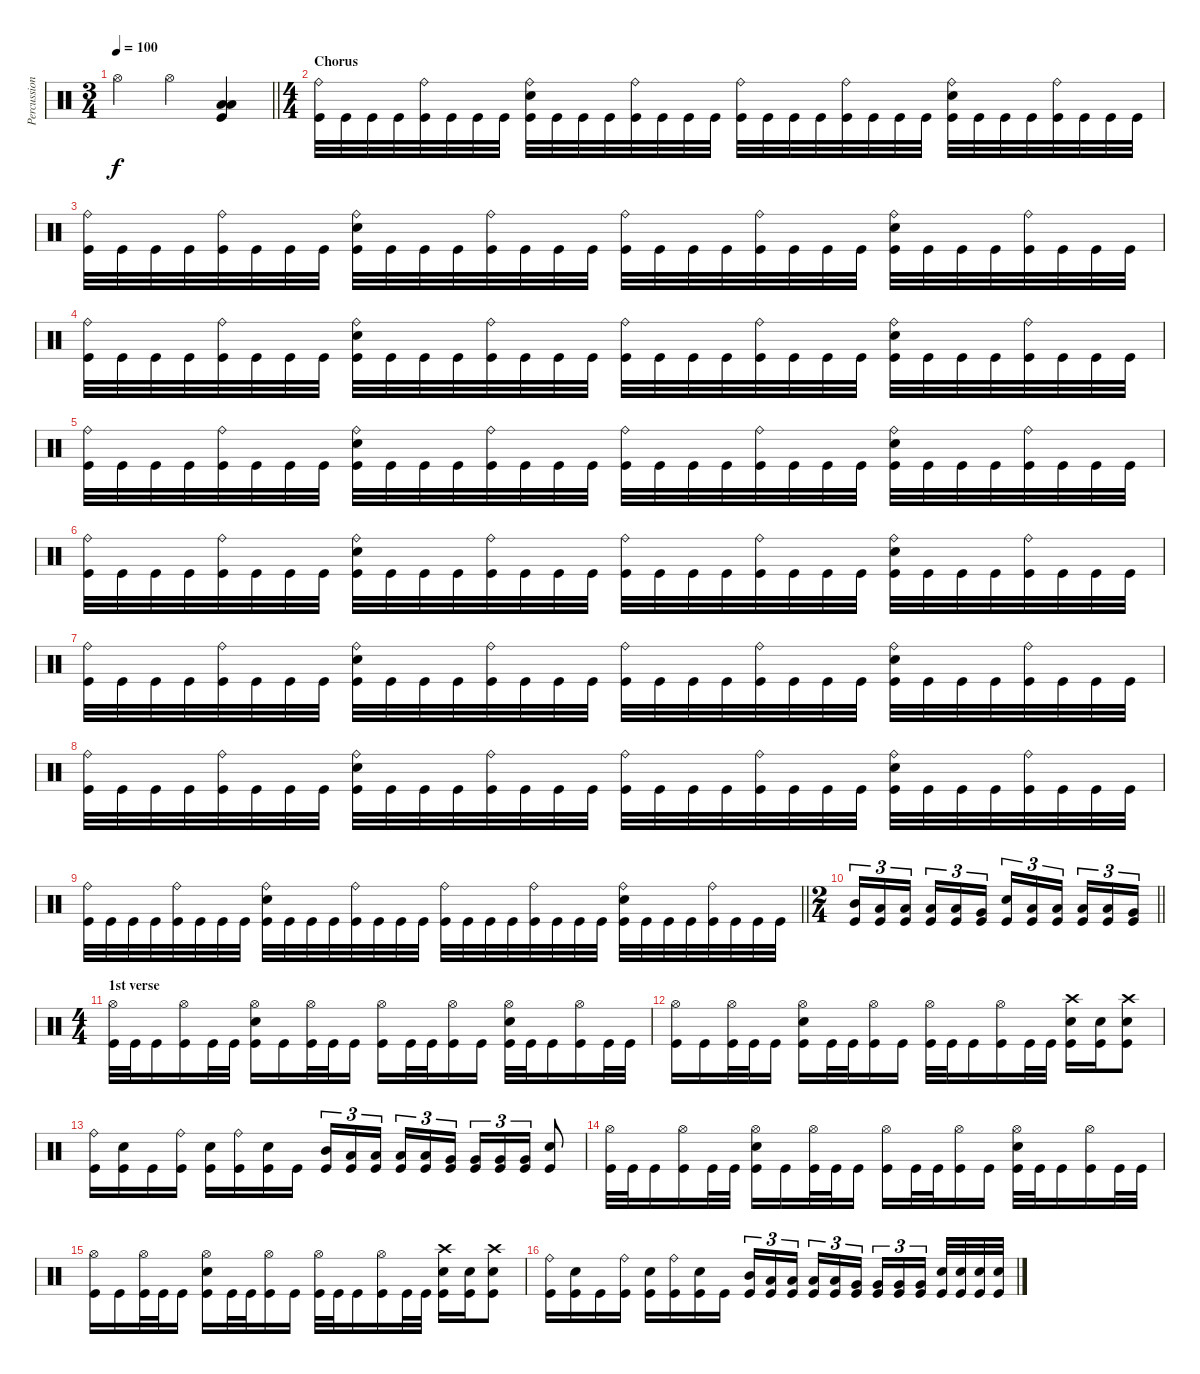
\track ("Percussions" "Percussion") {instrument percussion}
\staff {score}
\articulation defaults
\ts (3 4)
\tempo 100
\clef neutral
\barLineRight lightlight
\ks c "Hi-Hat (open)".4{dy f} "Hi-Hat (open)".4
("Low Floor Tom (hit)" "Low Floor Tom (hit)" "Kick (hit)").4 |
\ts (4 4)
\section ("" "Chorus")
("Ride (bell)" "Kick (hit)").32 "Kick (hit)".32 "Kick (hit)".32 "Kick (hit)".32 ("Ride (bell)" "Kick (hit)").32 "Kick (hit)".32 "Kick (hit)".32 "Kick (hit)".32 ("Ride (bell)" "Electric Snare (hit)" "Kick (hit)").32 "Kick (hit)".32 "Kick (hit)".32 "Kick (hit)".32 ("Ride (bell)" "Kick (hit)").32 "Kick (hit)".32 "Kick (hit)".32 "Kick (hit)".32 ("Ride (bell)" "Kick (hit)").32 "Kick (hit)".32 "Kick (hit)".32 "Kick (hit)".32 ("Ride (bell)" "Kick (hit)").32 "Kick (hit)".32 "Kick (hit)".32 "Kick (hit)".32 ("Ride (bell)" "Electric Snare (hit)" "Kick (hit)").32 "Kick (hit)".32 "Kick (hit)".32 "Kick (hit)".32 ("Ride (bell)" "Kick (hit)").32 "Kick (hit)".32 "Kick (hit)".32 "Kick (hit)".32 |
("Ride (bell)" "Kick (hit)").32 "Kick (hit)".32 "Kick (hit)".32 "Kick (hit)".32 ("Ride (bell)" "Kick (hit)").32 "Kick (hit)".32 "Kick (hit)".32 "Kick (hit)".32 ("Ride (bell)" "Electric Snare (hit)" "Kick (hit)").32 "Kick (hit)".32 "Kick (hit)".32 "Kick (hit)".32 ("Ride (bell)" "Kick (hit)").32 "Kick (hit)".32 "Kick (hit)".32 "Kick (hit)".32 ("Ride (bell)" "Kick (hit)").32 "Kick (hit)".32 "Kick (hit)".32 "Kick (hit)".32 ("Ride (bell)" "Kick (hit)").32 "Kick (hit)".32 "Kick (hit)".32 "Kick (hit)".32 ("Ride (bell)" "Electric Snare (hit)" "Kick (hit)").32 "Kick (hit)".32 "Kick (hit)".32 "Kick (hit)".32 ("Ride (bell)" "Kick (hit)").32 "Kick (hit)".32 "Kick (hit)".32 "Kick (hit)".32 |
("Ride (bell)" "Kick (hit)").32 "Kick (hit)".32 "Kick (hit)".32 "Kick (hit)".32 ("Ride (bell)" "Kick (hit)").32 "Kick (hit)".32 "Kick (hit)".32 "Kick (hit)".32 ("Ride (bell)" "Electric Snare (hit)" "Kick (hit)").32 "Kick (hit)".32 "Kick (hit)".32 "Kick (hit)".32 ("Ride (bell)" "Kick (hit)").32 "Kick (hit)".32 "Kick (hit)".32 "Kick (hit)".32 ("Ride (bell)" "Kick (hit)").32 "Kick (hit)".32 "Kick (hit)".32 "Kick (hit)".32 ("Ride (bell)" "Kick (hit)").32 "Kick (hit)".32 "Kick (hit)".32 "Kick (hit)".32 ("Ride (bell)" "Electric Snare (hit)" "Kick (hit)").32 "Kick (hit)".32 "Kick (hit)".32 "Kick (hit)".32 ("Ride (bell)" "Kick (hit)").32 "Kick (hit)".32 "Kick (hit)".32 "Kick (hit)".32 |
("Ride (bell)" "Kick (hit)").32 "Kick (hit)".32 "Kick (hit)".32 "Kick (hit)".32 ("Ride (bell)" "Kick (hit)").32 "Kick (hit)".32 "Kick (hit)".32 "Kick (hit)".32 ("Ride (bell)" "Electric Snare (hit)" "Kick (hit)").32 "Kick (hit)".32 "Kick (hit)".32 "Kick (hit)".32 ("Ride (bell)" "Kick (hit)").32 "Kick (hit)".32 "Kick (hit)".32 "Kick (hit)".32 ("Ride (bell)" "Kick (hit)").32 "Kick (hit)".32 "Kick (hit)".32 "Kick (hit)".32 ("Ride (bell)" "Kick (hit)").32 "Kick (hit)".32 "Kick (hit)".32 "Kick (hit)".32 ("Ride (bell)" "Electric Snare (hit)" "Kick (hit)").32 "Kick (hit)".32 "Kick (hit)".32 "Kick (hit)".32 ("Ride (bell)" "Kick (hit)").32 "Kick (hit)".32 "Kick (hit)".32 "Kick (hit)".32 |
("Ride (bell)" "Kick (hit)").32 "Kick (hit)".32 "Kick (hit)".32 "Kick (hit)".32 ("Ride (bell)" "Kick (hit)").32 "Kick (hit)".32 "Kick (hit)".32 "Kick (hit)".32 ("Ride (bell)" "Electric Snare (hit)" "Kick (hit)").32 "Kick (hit)".32 "Kick (hit)".32 "Kick (hit)".32 ("Ride (bell)" "Kick (hit)").32 "Kick (hit)".32 "Kick (hit)".32 "Kick (hit)".32 ("Ride (bell)" "Kick (hit)").32 "Kick (hit)".32 "Kick (hit)".32 "Kick (hit)".32 ("Ride (bell)" "Kick (hit)").32 "Kick (hit)".32 "Kick (hit)".32 "Kick (hit)".32 ("Ride (bell)" "Electric Snare (hit)" "Kick (hit)").32 "Kick (hit)".32 "Kick (hit)".32 "Kick (hit)".32 ("Ride (bell)" "Kick (hit)").32 "Kick (hit)".32 "Kick (hit)".32 "Kick (hit)".32 |
("Ride (bell)" "Kick (hit)").32 "Kick (hit)".32 "Kick (hit)".32 "Kick (hit)".32 ("Ride (bell)" "Kick (hit)").32 "Kick (hit)".32 "Kick (hit)".32 "Kick (hit)".32 ("Ride (bell)" "Electric Snare (hit)" "Kick (hit)").32 "Kick (hit)".32 "Kick (hit)".32 "Kick (hit)".32 ("Ride (bell)" "Kick (hit)").32 "Kick (hit)".32 "Kick (hit)".32 "Kick (hit)".32 ("Ride (bell)" "Kick (hit)").32 "Kick (hit)".32 "Kick (hit)".32 "Kick (hit)".32 ("Ride (bell)" "Kick (hit)").32 "Kick (hit)".32 "Kick (hit)".32 "Kick (hit)".32 ("Ride (bell)" "Electric Snare (hit)" "Kick (hit)").32 "Kick (hit)".32 "Kick (hit)".32 "Kick (hit)".32 ("Ride (bell)" "Kick (hit)").32 "Kick (hit)".32 "Kick (hit)".32 "Kick (hit)".32 |
("Ride (bell)" "Kick (hit)").32 "Kick (hit)".32 "Kick (hit)".32 "Kick (hit)".32 ("Ride (bell)" "Kick (hit)").32 "Kick (hit)".32 "Kick (hit)".32 "Kick (hit)".32 ("Ride (bell)" "Electric Snare (hit)" "Kick (hit)").32 "Kick (hit)".32 "Kick (hit)".32 "Kick (hit)".32 ("Ride (bell)" "Kick (hit)").32 "Kick (hit)".32 "Kick (hit)".32 "Kick (hit)".32 ("Ride (bell)" "Kick (hit)").32 "Kick (hit)".32 "Kick (hit)".32 "Kick (hit)".32 ("Ride (bell)" "Kick (hit)").32 "Kick (hit)".32 "Kick (hit)".32 "Kick (hit)".32 ("Ride (bell)" "Electric Snare (hit)" "Kick (hit)").32 "Kick (hit)".32 "Kick (hit)".32 "Kick (hit)".32 ("Ride (bell)" "Kick (hit)").32 "Kick (hit)".32 "Kick (hit)".32 "Kick (hit)".32 |
\barLineRight lightlight
("Ride (bell)" "Kick (hit)").32 "Kick (hit)".32 "Kick (hit)".32 "Kick (hit)".32 ("Ride (bell)" "Kick (hit)").32 "Kick (hit)".32 "Kick (hit)".32 "Kick (hit)".32 ("Ride (bell)" "Electric Snare (hit)" "Kick (hit)").32 "Kick (hit)".32 "Kick (hit)".32 "Kick (hit)".32 ("Ride (bell)" "Kick (hit)").32 "Kick (hit)".32 "Kick (hit)".32 "Kick (hit)".32 ("Ride (bell)" "Kick (hit)").32 "Kick (hit)".32 "Kick (hit)".32 "Kick (hit)".32 ("Ride (bell)" "Kick (hit)").32 "Kick (hit)".32 "Kick (hit)".32 "Kick (hit)".32 ("Ride (bell)" "Electric Snare (hit)" "Kick (hit)").32 "Kick (hit)".32 "Kick (hit)".32 "Kick (hit)".32 ("Ride (bell)" "Kick (hit)").32 "Kick (hit)".32 "Kick (hit)".32 "Kick (hit)".32 |
\ts (2 4)
\section ("" "")
\barLineRight lightlight
("Mid Tom (hit)" "Kick (hit)").16{tu (3 2)} ("Low Tom (hit)" "Kick (hit)").16{tu (3 2)} ("Low Tom (hit)" "Kick (hit)").16{tu (3 2) beam splitsecondary} ("Low Tom (hit)" "Kick (hit)").16{tu (3 2)} ("Low Tom (hit)" "Kick (hit)").16{tu (3 2)} ("Very Low Tom (hit)" "Kick (hit)").16{tu (3 2)} ("Electric Snare (hit)" "Kick (hit)").16{tu (3 2)} ("Low Tom (hit)" "Kick (hit)").16{tu (3 2)} ("Low Tom (hit)" "Kick (hit)").16{tu (3 2) beam splitsecondary} ("Low Tom (hit)" "Kick (hit)").16{tu (3 2)} ("Low Tom (hit)" "Kick (hit)").16{tu (3 2)} ("Very Low Tom (hit)" "Kick (hit)").16{tu (3 2)} |
\ts (4 4)
\section ("" "1st verse")
("Hi-Hat (open)" "Kick (hit)").32 "Kick (hit)".32 "Kick (hit)".16 ("Hi-Hat (open)" "Kick (hit)").16 "Kick (hit)".32 "Kick (hit)".32 ("Hi-Hat (open)" "Electric Snare (hit)" "Kick (hit)").16 "Kick (hit)".16 ("Hi-Hat (open)" "Kick (hit)").32 "Kick (hit)".32 "Kick (hit)".16 ("Hi-Hat (open)" "Kick (hit)").16 "Kick (hit)".32 "Kick (hit)".32 ("Hi-Hat (open)" "Kick (hit)").16 "Kick (hit)".16 ("Hi-Hat (open)" "Electric Snare (hit)" "Kick (hit)").32 "Kick (hit)".32 "Kick (hit)".16 ("Hi-Hat (open)" "Kick (hit)").16 "Kick (hit)".32 "Kick (hit)".32 |
("Hi-Hat (open)" "Kick (hit)").16 "Kick (hit)".16 ("Hi-Hat (open)" "Kick (hit)").32 "Kick (hit)".32 "Kick (hit)".16 ("Hi-Hat (open)" "Electric Snare (hit)" "Kick (hit)").16 "Kick (hit)".32 "Kick (hit)".32 ("Hi-Hat (open)" "Kick (hit)").16 "Kick (hit)".16 ("Hi-Hat (open)" "Kick (hit)").32 "Kick (hit)".32 "Kick (hit)".16 ("Hi-Hat (open)" "Kick (hit)").16 "Kick (hit)".32 "Kick (hit)".32 ("Crash high (hit)" "Electric Snare (hit)" "Kick (hit)").16 ("Electric Snare (hit)" "Kick (hit)").16 ("Crash high (hit)" "Electric Snare (hit)" "Kick (hit)").8 |
("Ride (bell)" "Kick (hit)").16 ("Electric Snare (hit)" "Kick (hit)").16 "Kick (hit)".16 ("Ride (bell)" "Kick (hit)").16 ("Electric Snare (hit)" "Kick (hit)").16 ("Ride (bell)" "Kick (hit)").16 ("Electric Snare (hit)" "Kick (hit)").16 "Kick (hit)".16 ("Mid Tom (hit)" "Kick (hit)").16{tu (3 2)} ("Low Tom (hit)" "Kick (hit)").16{tu (3 2)} ("Low Tom (hit)" "Kick (hit)").16{tu (3 2) beam splitsecondary} ("Low Tom (hit)" "Kick (hit)").16{tu (3 2)} ("Low Tom (hit)" "Kick (hit)").16{tu (3 2)} ("Very Low Tom (hit)" "Kick (hit)").16{tu (3 2)} ("Very Low Tom (hit)" "Kick (hit)").16{tu (3 2)} ("Very Low Tom (hit)" "Kick (hit)").16{tu (3 2)} ("Very Low Tom (hit)" "Kick (hit)").16{tu (3 2)} ("Electric Snare (hit)" "Kick (hit)").8 |
("Hi-Hat (open)" "Kick (hit)").32 "Kick (hit)".32 "Kick (hit)".16 ("Hi-Hat (open)" "Kick (hit)").16 "Kick (hit)".32 "Kick (hit)".32 ("Hi-Hat (open)" "Electric Snare (hit)" "Kick (hit)").16 "Kick (hit)".16 ("Hi-Hat (open)" "Kick (hit)").32 "Kick (hit)".32 "Kick (hit)".16 ("Hi-Hat (open)" "Kick (hit)").16 "Kick (hit)".32 "Kick (hit)".32 ("Hi-Hat (open)" "Kick (hit)").16 "Kick (hit)".16 ("Hi-Hat (open)" "Electric Snare (hit)" "Kick (hit)").32 "Kick (hit)".32 "Kick (hit)".16 ("Hi-Hat (open)" "Kick (hit)").16 "Kick (hit)".32 "Kick (hit)".32 |
("Hi-Hat (open)" "Kick (hit)").16 "Kick (hit)".16 ("Hi-Hat (open)" "Kick (hit)").32 "Kick (hit)".32 "Kick (hit)".16 ("Hi-Hat (open)" "Electric Snare (hit)" "Kick (hit)").16 "Kick (hit)".32 "Kick (hit)".32 ("Hi-Hat (open)" "Kick (hit)").16 "Kick (hit)".16 ("Hi-Hat (open)" "Kick (hit)").32 "Kick (hit)".32 "Kick (hit)".16 ("Hi-Hat (open)" "Kick (hit)").16 "Kick (hit)".32 "Kick (hit)".32 ("Crash high (hit)" "Electric Snare (hit)" "Kick (hit)").16 ("Electric Snare (hit)" "Kick (hit)").16 ("Crash high (hit)" "Electric Snare (hit)" "Kick (hit)").8 |
("Ride (bell)" "Kick (hit)").16 ("Electric Snare (hit)" "Kick (hit)").16 "Kick (hit)".16 ("Ride (bell)" "Kick (hit)").16 ("Electric Snare (hit)" "Kick (hit)").16 ("Ride (bell)" "Kick (hit)").16 ("Electric Snare (hit)" "Kick (hit)").16 "Kick (hit)".16 ("Mid Tom (hit)" "Kick (hit)").16{tu (3 2)} ("Low Tom (hit)" "Kick (hit)").16{tu (3 2)} ("Low Tom (hit)" "Kick (hit)").16{tu (3 2) beam splitsecondary} ("Low Tom (hit)" "Kick (hit)").16{tu (3 2)} ("Low Tom (hit)" "Kick (hit)").16{tu (3 2)} ("Very Low Tom (hit)" "Kick (hit)").16{tu (3 2)} ("Very Low Tom (hit)" "Kick (hit)").16{tu (3 2)} ("Very Low Tom (hit)" "Kick (hit)").16{tu (3 2)} ("Very Low Tom (hit)" "Kick (hit)").16{tu (3 2) beam splitsecondary} ("Electric Snare (hit)" "Kick (hit)").32 ("Electric Snare (hit)" "Kick (hit)").32 ("Electric Snare (hit)" "Kick (hit)").32 ("Electric Snare (hit)" "Kick (hit)").32
